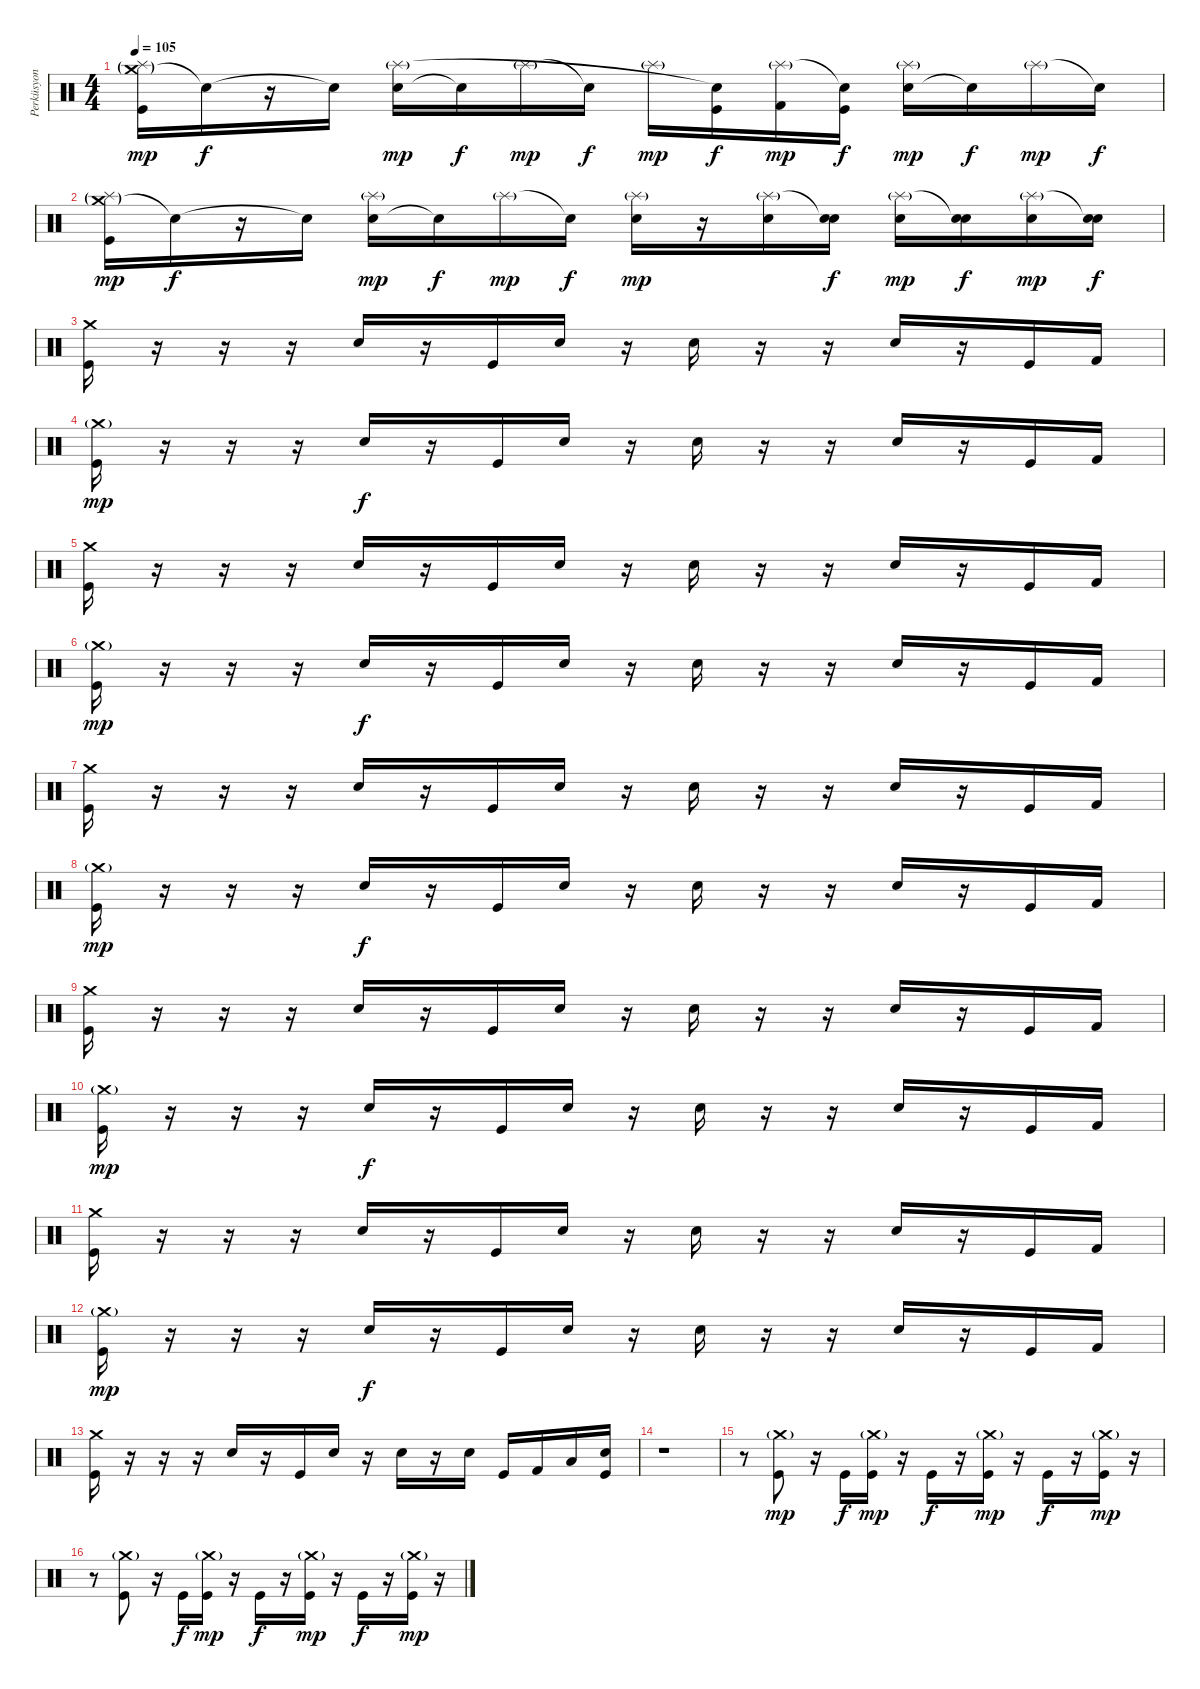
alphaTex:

\track ("Perküsyon" "Perküsyon") {instrument percussion}
\staff {score}
\articulation defaults
\ts (4 4)
\tempo 105
\clef neutral
\ks c
("Crash medium (hit)"{g} "Kick (hit)" "Splash (hit)"{g}).16{dy mp} "Snare (hit)"{t}.16{dy f} r.16 "Snare (hit)"{t}.16 ("Electric Snare (hit)" "Splash (hit)"{g}).16{dy mp} "Snare (hit)"{t}.16{dy f} "Splash (hit)"{g}.16{dy mp} "Snare (hit)"{t}.16{dy f} "Splash (hit)"{g}.16{dy mp} ("Kick (hit)" "Snare (hit)"{t}).16{dy f} ("Kick (hit) 2" "Splash (hit)"{g}).16{dy mp} ("Kick (hit)" "Snare (hit)"{t}).16{dy f} ("Electric Snare (hit)" "Splash (hit)"{g}).16{dy mp} "Snare (hit)"{t}.16{dy f} "Splash (hit)"{g}.16{dy mp} "Snare (hit)"{t}.16{dy f} |
("Crash medium (hit)"{g} "Kick (hit)" "Splash (hit)"{g}).16{dy mp} "Snare (hit)"{t}.16{dy f} r.16 "Snare (hit)"{t}.16 ("Electric Snare (hit)" "Splash (hit)"{g}).16{dy mp} "Snare (hit)"{t}.16{dy f} "Splash (hit)"{g}.16{dy mp} "Snare (hit)"{t}.16{dy f} ("Electric Snare (hit)" "Splash (hit)"{g}).16{dy mp} r.16 ("Electric Snare (hit)" "Splash (hit)"{g}).16 ("Electric Snare (hit)" "Snare (hit)"{t}).16{dy f} ("Electric Snare (hit)" "Splash (hit)"{g}).16{dy mp} ("Electric Snare (hit)" "Snare (hit)"{t}).16{dy f} ("Electric Snare (hit)" "Splash (hit)"{g}).16{dy mp} ("Electric Snare (hit)" "Snare (hit)"{t}).16{dy f} |
("Crash medium (hit)" "Kick (hit)").16 r.16 r.16 r.16 "Electric Snare (hit)".16 r.16 "Kick (hit)".16 "Electric Snare (hit)".16 r.16 "Electric Snare (hit)".16 r.16 r.16 "Electric Snare (hit)".16 r.16 "Kick (hit)".16 "Kick (hit) 2".16 |
("Crash medium (hit)"{g} "Kick (hit)").16{dy mp} r.16 r.16 r.16 "Electric Snare (hit)".16{dy f} r.16 "Kick (hit)".16 "Electric Snare (hit)".16 r.16 "Electric Snare (hit)".16 r.16 r.16 "Electric Snare (hit)".16 r.16 "Kick (hit)".16 "Kick (hit) 2".16 |
("Crash medium (hit)" "Kick (hit)").16 r.16 r.16 r.16 "Electric Snare (hit)".16 r.16 "Kick (hit)".16 "Electric Snare (hit)".16 r.16 "Electric Snare (hit)".16 r.16 r.16 "Electric Snare (hit)".16 r.16 "Kick (hit)".16 "Kick (hit) 2".16 |
("Crash medium (hit)"{g} "Kick (hit)").16{dy mp} r.16 r.16 r.16 "Electric Snare (hit)".16{dy f} r.16 "Kick (hit)".16 "Electric Snare (hit)".16 r.16 "Electric Snare (hit)".16 r.16 r.16 "Electric Snare (hit)".16 r.16 "Kick (hit)".16 "Kick (hit) 2".16 |
("Crash medium (hit)" "Kick (hit)").16 r.16 r.16 r.16 "Electric Snare (hit)".16 r.16 "Kick (hit)".16 "Electric Snare (hit)".16 r.16 "Electric Snare (hit)".16 r.16 r.16 "Electric Snare (hit)".16 r.16 "Kick (hit)".16 "Kick (hit) 2".16 |
("Crash medium (hit)"{g} "Kick (hit)").16{dy mp} r.16 r.16 r.16 "Electric Snare (hit)".16{dy f} r.16 "Kick (hit)".16 "Electric Snare (hit)".16 r.16 "Electric Snare (hit)".16 r.16 r.16 "Electric Snare (hit)".16 r.16 "Kick (hit)".16 "Kick (hit) 2".16 |
("Crash medium (hit)" "Kick (hit)").16 r.16 r.16 r.16 "Electric Snare (hit)".16 r.16 "Kick (hit)".16 "Electric Snare (hit)".16 r.16 "Electric Snare (hit)".16 r.16 r.16 "Electric Snare (hit)".16 r.16 "Kick (hit)".16 "Kick (hit) 2".16 |
("Crash medium (hit)"{g} "Kick (hit)").16{dy mp} r.16 r.16 r.16 "Electric Snare (hit)".16{dy f} r.16 "Kick (hit)".16 "Electric Snare (hit)".16 r.16 "Electric Snare (hit)".16 r.16 r.16 "Electric Snare (hit)".16 r.16 "Kick (hit)".16 "Kick (hit) 2".16 |
("Crash medium (hit)" "Kick (hit)").16 r.16 r.16 r.16 "Electric Snare (hit)".16 r.16 "Kick (hit)".16 "Electric Snare (hit)".16 r.16 "Electric Snare (hit)".16 r.16 r.16 "Electric Snare (hit)".16 r.16 "Kick (hit)".16 "Kick (hit) 2".16 |
("Crash medium (hit)"{g} "Kick (hit)").16{dy mp} r.16 r.16 r.16 "Electric Snare (hit)".16{dy f} r.16 "Kick (hit)".16 "Electric Snare (hit)".16 r.16 "Electric Snare (hit)".16 r.16 r.16 "Electric Snare (hit)".16 r.16 "Kick (hit)".16 "Kick (hit) 2".16 |
("Crash medium (hit)" "Kick (hit)").16 r.16 r.16 r.16 "Electric Snare (hit)".16 r.16 "Kick (hit)".16 "Electric Snare (hit)".16 r.16 "Electric Snare (hit)".16 r.16 "Electric Snare (hit)".16 "Kick (hit)".16 "Kick (hit) 2".16 "Low Tom (hit)".16 ("Electric Snare (hit)" "Kick (hit)").16 |
r.1 |
r.8 ("Crash medium (hit)"{g} "Kick (hit)").8{dy mp} r.16 "Kick (hit)".16{dy f} ("Crash medium (hit)"{g} "Kick (hit)").16{dy mp} r.16 "Kick (hit)".16{dy f} r.16 ("Crash medium (hit)"{g} "Kick (hit)").16{dy mp} r.16 "Kick (hit)".16{dy f} r.16 ("Crash medium (hit)"{g} "Kick (hit)").16{dy mp} r.16 |
r.8 ("Crash medium (hit)"{g} "Kick (hit)").8 r.16 "Kick (hit)".16{dy f} ("Crash medium (hit)"{g} "Kick (hit)").16{dy mp} r.16 "Kick (hit)".16{dy f} r.16 ("Crash medium (hit)"{g} "Kick (hit)").16{dy mp} r.16 "Kick (hit)".16{dy f} r.16 ("Crash medium (hit)"{g} "Kick (hit)").16{dy mp} r.16
